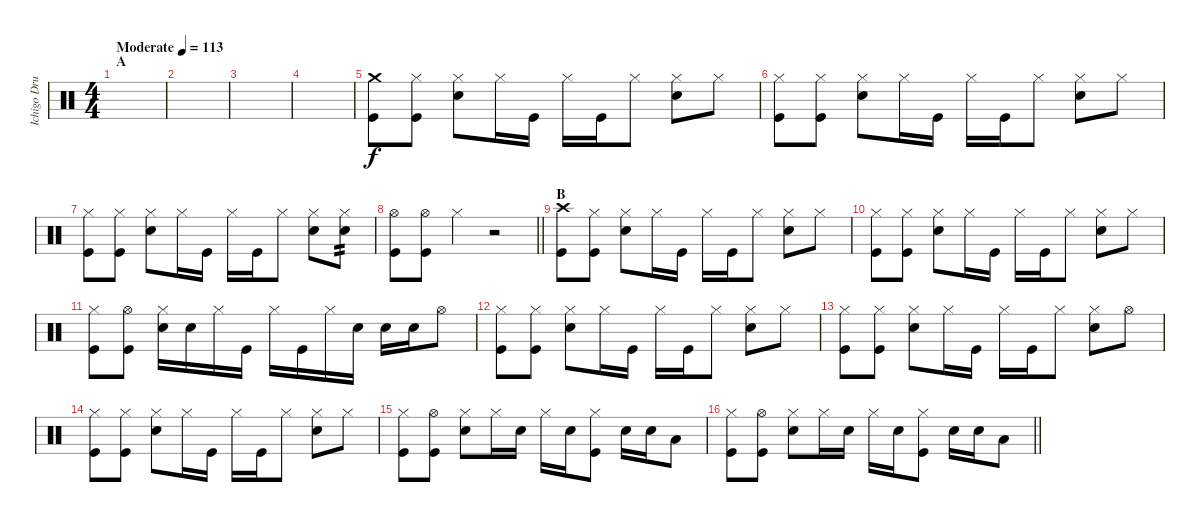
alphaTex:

\track ("Ichigo Drums" "Ichigo Dru") {instrument percussion}
\staff {score}
\articulation defaults
\ts (4 4)
\section ("" "A")
\tempo (113 "Moderate")
\clef neutral
\ks c
|
|
|
|
("Crash medium (hit)" "Kick (hit)").8 ("Hi-Hat (closed)" "Kick (hit)").8 ("Hi-Hat (closed)" "Snare (hit) 2").8 "Hi-Hat (closed)".16 "Kick (hit)".16 "Hi-Hat (closed)".16 "Kick (hit)".16 "Hi-Hat (closed)".8 ("Hi-Hat (closed)" "Snare (hit) 2").8 "Hi-Hat (closed)".8 |
("Hi-Hat (closed)" "Kick (hit)").8 ("Hi-Hat (closed)" "Kick (hit)").8 ("Hi-Hat (closed)" "Snare (hit) 2").8 "Hi-Hat (closed)".16 "Kick (hit)".16 "Hi-Hat (closed)".16 "Kick (hit)".16 "Hi-Hat (closed)".8 ("Hi-Hat (closed)" "Snare (hit) 2").8 "Hi-Hat (closed)".8 |
("Hi-Hat (closed)" "Kick (hit)").8 ("Hi-Hat (closed)" "Kick (hit)").8 ("Hi-Hat (closed)" "Snare (hit) 2").8 "Hi-Hat (closed)".16 "Kick (hit)".16 "Hi-Hat (closed)".16 "Kick (hit)".16 "Hi-Hat (closed)".8 ("Hi-Hat (closed)" "Snare (hit) 2").8 ("Hi-Hat (closed)" "Snare (hit) 2").8{tp 2} |
\barLineRight lightlight
("Hi-Hat (open)" "Kick (hit)").8 ("Hi-Hat (open)" "Kick (hit)").8 "Hi-Hat (closed)".4 r.2 |
\section ("" "B")
("Crash high (hit)" "Kick (hit)").8 ("Hi-Hat (closed)" "Kick (hit)").8 ("Hi-Hat (closed)" "Snare (hit) 2").8 "Hi-Hat (closed)".16 "Kick (hit)".16 "Hi-Hat (closed)".16 "Kick (hit)".16 "Hi-Hat (closed)".8 ("Hi-Hat (closed)" "Snare (hit) 2").8 "Hi-Hat (closed)".8 |
("Hi-Hat (closed)" "Kick (hit)").8 ("Hi-Hat (closed)" "Kick (hit)").8 ("Hi-Hat (closed)" "Snare (hit) 2").8 "Hi-Hat (closed)".16 "Kick (hit)".16 "Hi-Hat (closed)".16 "Kick (hit)".16 "Hi-Hat (closed)".8 ("Hi-Hat (closed)" "Snare (hit) 2").8 "Hi-Hat (closed)".8 |
("Hi-Hat (closed)" "Kick (hit)").8 ("Hi-Hat (open)" "Kick (hit)").8 ("Hi-Hat (closed)" "Snare (hit) 2").16 "Snare (hit) 2".16 "Hi-Hat (closed)".16 "Kick (hit)".16 "Hi-Hat (closed)".16 "Kick (hit)".16 "Hi-Hat (closed)".16 "Snare (hit) 2".16 "Snare (hit) 2".16 "Snare (hit) 2".16 "Hi-Hat (open)".8 |
("Hi-Hat (closed)" "Kick (hit)").8 ("Hi-Hat (closed)" "Kick (hit)").8 ("Hi-Hat (closed)" "Snare (hit) 2").8 "Hi-Hat (closed)".16 "Kick (hit)".16 "Hi-Hat (closed)".16 "Kick (hit)".16 "Hi-Hat (closed)".8 ("Hi-Hat (closed)" "Snare (hit) 2").8 "Hi-Hat (closed)".8 |
("Hi-Hat (closed)" "Kick (hit)").8 ("Hi-Hat (closed)" "Kick (hit)").8 ("Hi-Hat (closed)" "Snare (hit) 2").8 "Hi-Hat (closed)".16 "Kick (hit)".16 "Hi-Hat (closed)".16 "Kick (hit)".16 "Hi-Hat (closed)".8 ("Hi-Hat (closed)" "Snare (hit) 2").8 "Hi-Hat (open)".8 |
("Hi-Hat (closed)" "Kick (hit)").8 ("Hi-Hat (closed)" "Kick (hit)").8 ("Hi-Hat (closed)" "Snare (hit) 2").8 "Hi-Hat (closed)".16 "Kick (hit)".16 "Hi-Hat (closed)".16 "Kick (hit)".16 "Hi-Hat (closed)".8 ("Hi-Hat (closed)" "Snare (hit) 2").8 "Hi-Hat (closed)".8 |
("Hi-Hat (closed)" "Kick (hit)").8 ("Hi-Hat (open)" "Kick (hit)").8 ("Hi-Hat (closed)" "Snare (hit) 2").8 "Hi-Hat (closed)".16 "Snare (hit) 2".16 "Hi-Hat (closed)".16 "Snare (hit) 2".16 ("Hi-Hat (closed)" "Kick (hit)").8 "Snare (hit) 2".16 "Snare (hit) 2".16 "Low Tom (hit)".8 |
\barLineRight lightlight
("Hi-Hat (closed)" "Kick (hit)").8 ("Hi-Hat (open)" "Kick (hit)").8 ("Hi-Hat (closed)" "Snare (hit) 2").8 "Hi-Hat (closed)".16 "Snare (hit) 2".16 "Hi-Hat (closed)".16 "Snare (hit) 2".16 ("Hi-Hat (closed)" "Kick (hit)").8 "Snare (hit) 2".16 "Snare (hit) 2".16 "Low Tom (hit)".8
